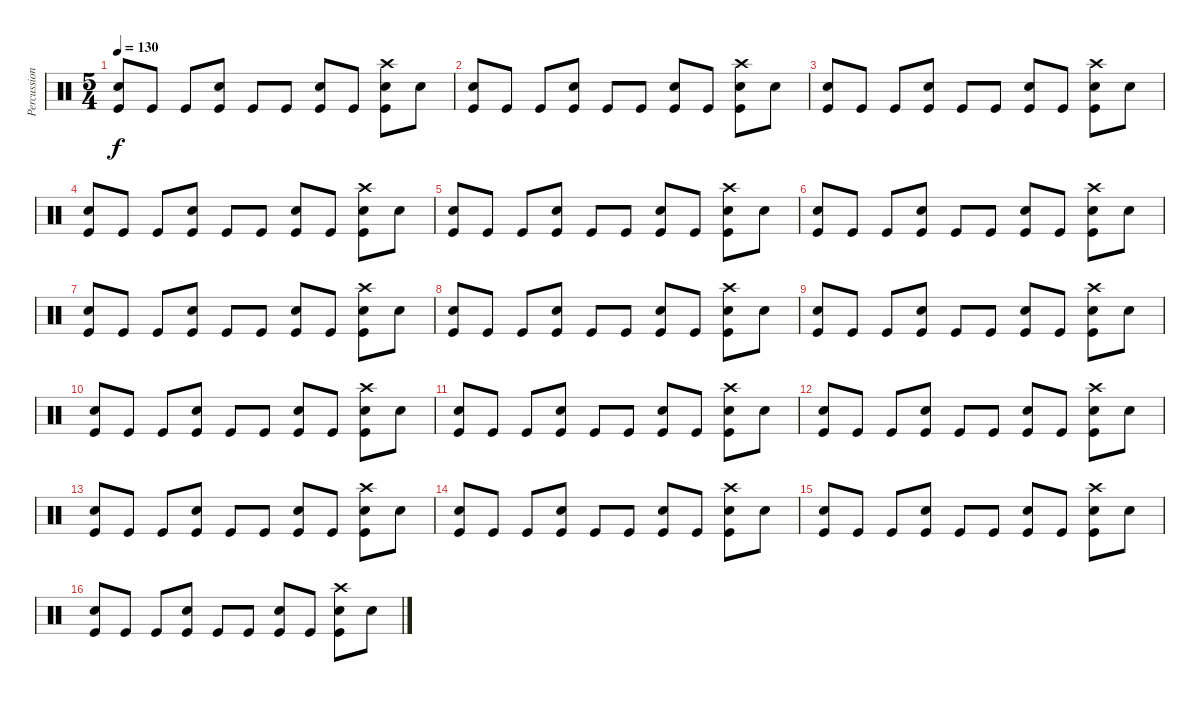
\track ("Percussion" "Percussion") {instrument percussion}
\staff {score}
\articulation defaults
\ts (5 4)
\tempo 130
\clef neutral
\ks c
("Electric Snare (hit)" "Kick (hit)").8{dy f} "Kick (hit)".8 "Kick (hit)".8 ("Electric Snare (hit)" "Kick (hit)").8 "Kick (hit)".8 "Kick (hit)".8 ("Electric Snare (hit)" "Kick (hit)").8 "Kick (hit)".8 ("Crash high (hit)" "Electric Snare (hit)" "Kick (hit)").8 "Electric Snare (hit)".8 |
("Electric Snare (hit)" "Kick (hit)").8 "Kick (hit)".8 "Kick (hit)".8 ("Electric Snare (hit)" "Kick (hit)").8 "Kick (hit)".8 "Kick (hit)".8 ("Electric Snare (hit)" "Kick (hit)").8 "Kick (hit)".8 ("Crash high (hit)" "Electric Snare (hit)" "Kick (hit)").8 "Electric Snare (hit)".8 |
("Electric Snare (hit)" "Kick (hit)").8 "Kick (hit)".8 "Kick (hit)".8 ("Electric Snare (hit)" "Kick (hit)").8 "Kick (hit)".8 "Kick (hit)".8 ("Electric Snare (hit)" "Kick (hit)").8 "Kick (hit)".8 ("Crash high (hit)" "Electric Snare (hit)" "Kick (hit)").8 "Electric Snare (hit)".8 |
("Electric Snare (hit)" "Kick (hit)").8 "Kick (hit)".8 "Kick (hit)".8 ("Electric Snare (hit)" "Kick (hit)").8 "Kick (hit)".8 "Kick (hit)".8 ("Electric Snare (hit)" "Kick (hit)").8 "Kick (hit)".8 ("Crash high (hit)" "Electric Snare (hit)" "Kick (hit)").8 "Electric Snare (hit)".8 |
("Electric Snare (hit)" "Kick (hit)").8 "Kick (hit)".8 "Kick (hit)".8 ("Electric Snare (hit)" "Kick (hit)").8 "Kick (hit)".8 "Kick (hit)".8 ("Electric Snare (hit)" "Kick (hit)").8 "Kick (hit)".8 ("Crash high (hit)" "Electric Snare (hit)" "Kick (hit)").8 "Electric Snare (hit)".8 |
("Electric Snare (hit)" "Kick (hit)").8 "Kick (hit)".8 "Kick (hit)".8 ("Electric Snare (hit)" "Kick (hit)").8 "Kick (hit)".8 "Kick (hit)".8 ("Electric Snare (hit)" "Kick (hit)").8 "Kick (hit)".8 ("Crash high (hit)" "Electric Snare (hit)" "Kick (hit)").8 "Electric Snare (hit)".8 |
("Electric Snare (hit)" "Kick (hit)").8 "Kick (hit)".8 "Kick (hit)".8 ("Electric Snare (hit)" "Kick (hit)").8 "Kick (hit)".8 "Kick (hit)".8 ("Electric Snare (hit)" "Kick (hit)").8 "Kick (hit)".8 ("Crash high (hit)" "Electric Snare (hit)" "Kick (hit)").8 "Electric Snare (hit)".8 |
("Electric Snare (hit)" "Kick (hit)").8 "Kick (hit)".8 "Kick (hit)".8 ("Electric Snare (hit)" "Kick (hit)").8 "Kick (hit)".8 "Kick (hit)".8 ("Electric Snare (hit)" "Kick (hit)").8 "Kick (hit)".8 ("Crash high (hit)" "Electric Snare (hit)" "Kick (hit)").8 "Electric Snare (hit)".8 |
("Electric Snare (hit)" "Kick (hit)").8 "Kick (hit)".8 "Kick (hit)".8 ("Electric Snare (hit)" "Kick (hit)").8 "Kick (hit)".8 "Kick (hit)".8 ("Electric Snare (hit)" "Kick (hit)").8 "Kick (hit)".8 ("Crash high (hit)" "Electric Snare (hit)" "Kick (hit)").8 "Electric Snare (hit)".8 |
("Electric Snare (hit)" "Kick (hit)").8 "Kick (hit)".8 "Kick (hit)".8 ("Electric Snare (hit)" "Kick (hit)").8 "Kick (hit)".8 "Kick (hit)".8 ("Electric Snare (hit)" "Kick (hit)").8 "Kick (hit)".8 ("Crash high (hit)" "Electric Snare (hit)" "Kick (hit)").8 "Electric Snare (hit)".8 |
("Electric Snare (hit)" "Kick (hit)").8 "Kick (hit)".8 "Kick (hit)".8 ("Electric Snare (hit)" "Kick (hit)").8 "Kick (hit)".8 "Kick (hit)".8 ("Electric Snare (hit)" "Kick (hit)").8 "Kick (hit)".8 ("Crash high (hit)" "Electric Snare (hit)" "Kick (hit)").8 "Electric Snare (hit)".8 |
("Electric Snare (hit)" "Kick (hit)").8 "Kick (hit)".8 "Kick (hit)".8 ("Electric Snare (hit)" "Kick (hit)").8 "Kick (hit)".8 "Kick (hit)".8 ("Electric Snare (hit)" "Kick (hit)").8 "Kick (hit)".8 ("Crash high (hit)" "Electric Snare (hit)" "Kick (hit)").8 "Electric Snare (hit)".8 |
("Electric Snare (hit)" "Kick (hit)").8 "Kick (hit)".8 "Kick (hit)".8 ("Electric Snare (hit)" "Kick (hit)").8 "Kick (hit)".8 "Kick (hit)".8 ("Electric Snare (hit)" "Kick (hit)").8 "Kick (hit)".8 ("Crash high (hit)" "Electric Snare (hit)" "Kick (hit)").8 "Electric Snare (hit)".8 |
("Electric Snare (hit)" "Kick (hit)").8 "Kick (hit)".8 "Kick (hit)".8 ("Electric Snare (hit)" "Kick (hit)").8 "Kick (hit)".8 "Kick (hit)".8 ("Electric Snare (hit)" "Kick (hit)").8 "Kick (hit)".8 ("Crash high (hit)" "Electric Snare (hit)" "Kick (hit)").8 "Electric Snare (hit)".8 |
("Electric Snare (hit)" "Kick (hit)").8 "Kick (hit)".8 "Kick (hit)".8 ("Electric Snare (hit)" "Kick (hit)").8 "Kick (hit)".8 "Kick (hit)".8 ("Electric Snare (hit)" "Kick (hit)").8 "Kick (hit)".8 ("Crash high (hit)" "Electric Snare (hit)" "Kick (hit)").8 "Electric Snare (hit)".8 |
("Electric Snare (hit)" "Kick (hit)").8 "Kick (hit)".8 "Kick (hit)".8 ("Electric Snare (hit)" "Kick (hit)").8 "Kick (hit)".8 "Kick (hit)".8 ("Electric Snare (hit)" "Kick (hit)").8 "Kick (hit)".8 ("Crash high (hit)" "Electric Snare (hit)" "Kick (hit)").8 "Electric Snare (hit)".8
